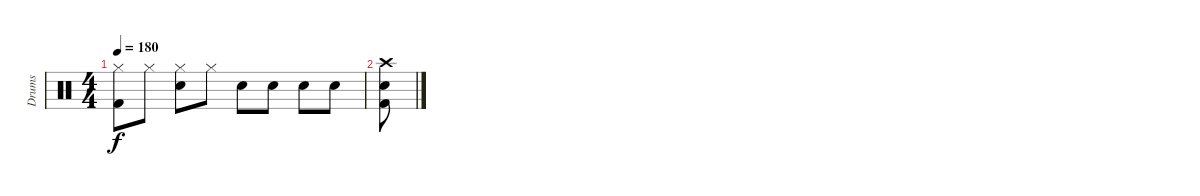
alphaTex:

\track ("Drums" "Drums") {instrument percussion}
\staff {score}
\articulation defaults
\ts (4 4)
\tempo 180
\clef neutral
\ks c
("Hi-Hat (closed)" "Kick (hit) 2").8{dy f} "Hi-Hat (closed)".8 ("Hi-Hat (closed)" "Snare (hit) 2").8 "Hi-Hat (closed)".8 "Snare (hit) 2".8 "Snare (hit) 2".8 "Snare (hit) 2".8 "Snare (hit) 2".8 |
("Crash high (hit)" "Snare (hit) 2" "Kick (hit) 2").8
